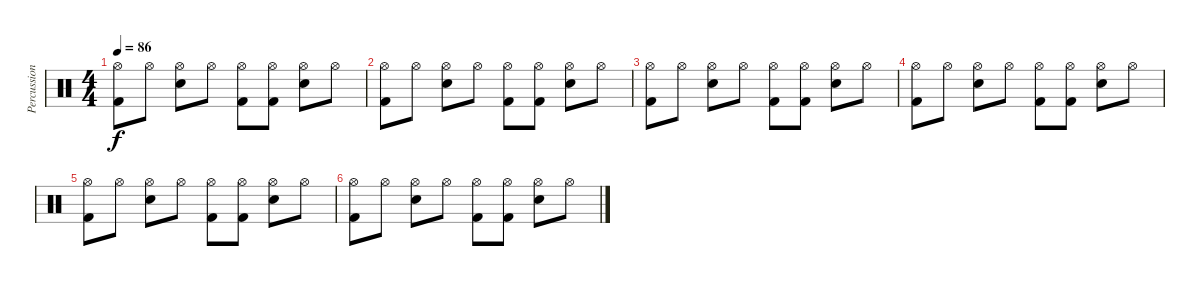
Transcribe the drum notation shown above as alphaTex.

\track ("Percussion" "Percussion") {instrument percussion}
\staff {score}
\articulation defaults
\ts (4 4)
\tempo 86
\clef neutral
\ks c
("Hi-Hat (open)" "Kick (hit) 2").8{dy f} "Hi-Hat (open)".8 ("Hi-Hat (open)" "Snare (hit) 2").8 "Hi-Hat (open)".8 ("Hi-Hat (open)" "Kick (hit) 2").8 ("Hi-Hat (open)" "Kick (hit) 2").8 ("Hi-Hat (open)" "Snare (hit) 2").8 "Hi-Hat (open)".8 |
("Hi-Hat (open)" "Kick (hit) 2").8 "Hi-Hat (open)".8 ("Hi-Hat (open)" "Snare (hit) 2").8 "Hi-Hat (open)".8 ("Hi-Hat (open)" "Kick (hit) 2").8 ("Hi-Hat (open)" "Kick (hit) 2").8 ("Hi-Hat (open)" "Snare (hit) 2").8 "Hi-Hat (open)".8 |
("Hi-Hat (open)" "Kick (hit) 2").8 "Hi-Hat (open)".8 ("Hi-Hat (open)" "Snare (hit) 2").8 "Hi-Hat (open)".8 ("Hi-Hat (open)" "Kick (hit) 2").8 ("Hi-Hat (open)" "Kick (hit) 2").8 ("Hi-Hat (open)" "Snare (hit) 2").8 "Hi-Hat (open)".8 |
("Hi-Hat (open)" "Kick (hit) 2").8 "Hi-Hat (open)".8 ("Hi-Hat (open)" "Snare (hit) 2").8 "Hi-Hat (open)".8 ("Hi-Hat (open)" "Kick (hit) 2").8 ("Hi-Hat (open)" "Kick (hit) 2").8 ("Hi-Hat (open)" "Snare (hit) 2").8 "Hi-Hat (open)".8 |
("Hi-Hat (open)" "Kick (hit) 2").8 "Hi-Hat (open)".8 ("Hi-Hat (open)" "Snare (hit) 2").8 "Hi-Hat (open)".8 ("Hi-Hat (open)" "Kick (hit) 2").8 ("Hi-Hat (open)" "Kick (hit) 2").8 ("Hi-Hat (open)" "Snare (hit) 2").8 "Hi-Hat (open)".8 |
("Hi-Hat (open)" "Kick (hit) 2").8 "Hi-Hat (open)".8 ("Hi-Hat (open)" "Snare (hit) 2").8 "Hi-Hat (open)".8 ("Hi-Hat (open)" "Kick (hit) 2").8 ("Hi-Hat (open)" "Kick (hit) 2").8 ("Hi-Hat (open)" "Snare (hit) 2").8 "Hi-Hat (open)".8
